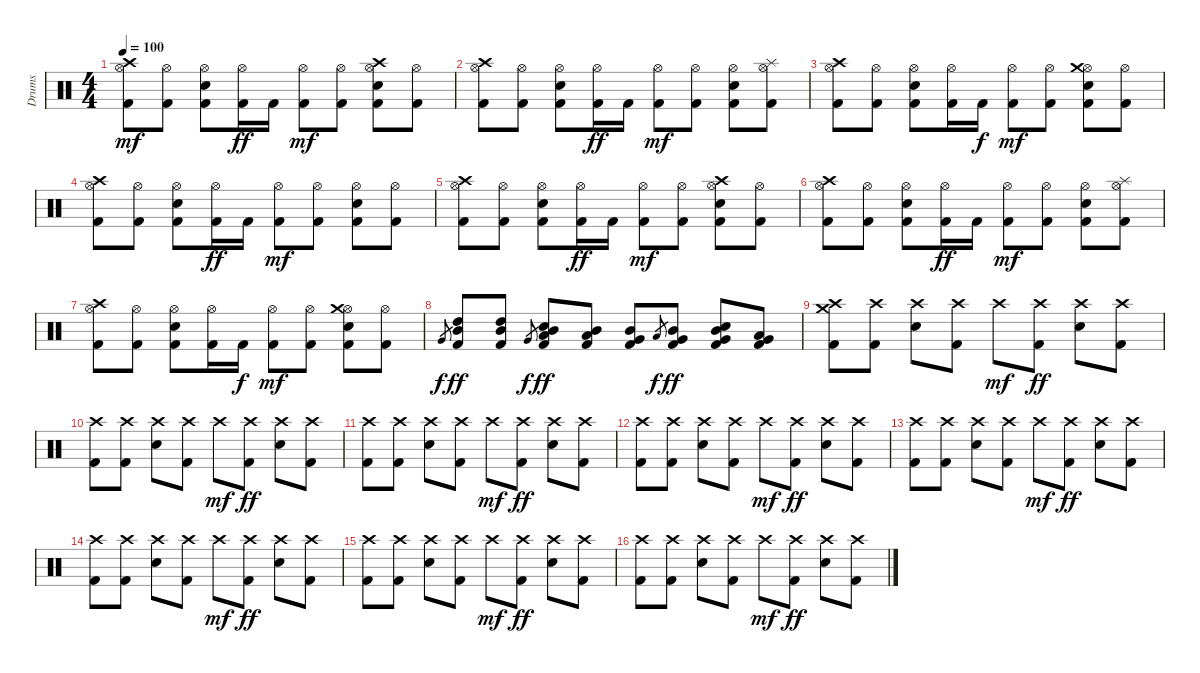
\track ("Drums" "Drums") {instrument percussion}
\staff {score}
\articulation defaults
\ts (4 4)
\tempo 100
\clef neutral
\ks c
("Hi-Hat (open)" "Crash high (hit)" "Kick (hit) 2").8{dy mf} ("Hi-Hat (open)" "Kick (hit) 2").8 ("Hi-Hat (open)" "Electric Snare (hit)" "Kick (hit) 2").8 ("Hi-Hat (open)" "Kick (hit) 2").16{dy ff} "Kick (hit) 2".16 ("Hi-Hat (open)" "Kick (hit) 2").8{dy mf} ("Hi-Hat (open)" "Kick (hit) 2").8 ("Hi-Hat (open)" "Crash high (hit)" "Electric Snare (hit)" "Kick (hit) 2").8 ("Hi-Hat (open)" "Kick (hit) 2").8 |
("Hi-Hat (open)" "Crash high (hit)" "Kick (hit) 2").8 ("Hi-Hat (open)" "Kick (hit) 2").8 ("Hi-Hat (open)" "Electric Snare (hit)" "Kick (hit) 2").8 ("Hi-Hat (open)" "Kick (hit) 2").16{dy ff} "Kick (hit) 2".16 ("Hi-Hat (open)" "Kick (hit) 2").8{dy mf} ("Hi-Hat (open)" "Kick (hit) 2").8 ("Hi-Hat (open)" "Electric Snare (hit)" "Kick (hit) 2").8 ("Hi-Hat (open)" "Splash (hit)" "Kick (hit) 2").8 |
("Hi-Hat (open)" "Crash high (hit)" "Kick (hit) 2").8 ("Hi-Hat (open)" "Kick (hit) 2").8 ("Hi-Hat (open)" "Electric Snare (hit)" "Kick (hit) 2").8 ("Hi-Hat (open)" "Kick (hit) 2").16 "Kick (hit) 2".16{dy f} ("Hi-Hat (open)" "Kick (hit) 2").8{dy mf} ("Hi-Hat (open)" "Kick (hit) 2").8 ("Hi-Hat (open)" "Crash medium (hit)" "Electric Snare (hit)" "Kick (hit) 2").8 ("Hi-Hat (open)" "Kick (hit) 2").8 |
("Hi-Hat (open)" "Crash high (hit)" "Kick (hit) 2").8 ("Hi-Hat (open)" "Kick (hit) 2").8 ("Hi-Hat (open)" "Electric Snare (hit)" "Kick (hit) 2").8 ("Hi-Hat (open)" "Kick (hit) 2").16{dy ff} "Kick (hit) 2".16 ("Hi-Hat (open)" "Kick (hit) 2").8{dy mf} ("Hi-Hat (open)" "Kick (hit) 2").8 ("Hi-Hat (open)" "Electric Snare (hit)" "Kick (hit) 2").8 ("Hi-Hat (open)" "Kick (hit) 2").8 |
("Hi-Hat (open)" "Crash high (hit)" "Kick (hit) 2").8 ("Hi-Hat (open)" "Kick (hit) 2").8 ("Hi-Hat (open)" "Electric Snare (hit)" "Kick (hit) 2").8 ("Hi-Hat (open)" "Kick (hit) 2").16{dy ff} "Kick (hit) 2".16 ("Hi-Hat (open)" "Kick (hit) 2").8{dy mf} ("Hi-Hat (open)" "Kick (hit) 2").8 ("Hi-Hat (open)" "Crash high (hit)" "Electric Snare (hit)" "Kick (hit) 2").8 ("Hi-Hat (open)" "Kick (hit) 2").8 |
("Hi-Hat (open)" "Crash high (hit)" "Kick (hit) 2").8 ("Hi-Hat (open)" "Kick (hit) 2").8 ("Hi-Hat (open)" "Electric Snare (hit)" "Kick (hit) 2").8 ("Hi-Hat (open)" "Kick (hit) 2").16{dy ff} "Kick (hit) 2".16 ("Hi-Hat (open)" "Kick (hit) 2").8{dy mf} ("Hi-Hat (open)" "Kick (hit) 2").8 ("Hi-Hat (open)" "Electric Snare (hit)" "Kick (hit) 2").8 ("Hi-Hat (open)" "Splash (hit)" "Kick (hit) 2").8 |
("Hi-Hat (open)" "Crash high (hit)" "Kick (hit) 2").8 ("Hi-Hat (open)" "Kick (hit) 2").8 ("Hi-Hat (open)" "Electric Snare (hit)" "Kick (hit) 2").8 ("Hi-Hat (open)" "Kick (hit) 2").16 "Kick (hit) 2".16{dy f} ("Hi-Hat (open)" "Kick (hit) 2").8{dy mf} ("Hi-Hat (open)" "Kick (hit) 2").8 ("Hi-Hat (open)" "Crash medium (hit)" "Electric Snare (hit)" "Kick (hit) 2").8 ("Hi-Hat (open)" "Kick (hit) 2").8 |
"Very Low Tom (hit)".8{gr dy f} ("High Tom (hit)" "Mid Tom (hit)" "Kick (hit) 2").8{dy ff} ("High Tom (hit)" "Mid Tom (hit)" "Kick (hit) 2").8 "Very Low Tom (hit)".8{gr dy f} ("Low Tom (hit)" "Mid Tom (hit)" "Electric Snare (hit)" "Kick (hit) 2").8{dy ff} ("Low Tom (hit)" "Mid Tom (hit)" "Kick (hit) 2").8 ("Mid Tom (hit)" "Very Low Tom (hit)" "Kick (hit) 2").8 "Low Tom (hit)".8{gr dy f} ("Very Low Tom (hit)" "Mid Tom (hit)" "Kick (hit) 2").8{dy ff} ("Mid Tom (hit)" "Very Low Tom (hit)" "Electric Snare (hit)" "Kick (hit) 2").8 ("Very Low Tom (hit)" "Low Floor Tom (hit)" "Kick (hit) 2").8 |
("Crash high (hit)" "Crash medium (hit)" "Kick (hit) 2").8 ("Crash high (hit)" "Kick (hit) 2").8 ("Crash high (hit)" "Electric Snare (hit)").8 ("Crash high (hit)" "Kick (hit) 2").8 "Crash high (hit)".8{dy mf} ("Crash high (hit)" "Kick (hit) 2").8{dy ff} ("Crash high (hit)" "Electric Snare (hit)").8 ("Crash high (hit)" "Kick (hit) 2").8 |
("Crash high (hit)" "Kick (hit) 2").8 ("Crash high (hit)" "Kick (hit) 2").8 ("Crash high (hit)" "Electric Snare (hit)").8 ("Crash high (hit)" "Kick (hit) 2").8 "Crash high (hit)".8{dy mf} ("Crash high (hit)" "Kick (hit) 2").8{dy ff} ("Crash high (hit)" "Electric Snare (hit)").8 ("Crash high (hit)" "Kick (hit) 2").8 |
("Crash high (hit)" "Kick (hit) 2").8 ("Crash high (hit)" "Kick (hit) 2").8 ("Crash high (hit)" "Electric Snare (hit)").8 ("Crash high (hit)" "Kick (hit) 2").8 "Crash high (hit)".8{dy mf} ("Crash high (hit)" "Kick (hit) 2").8{dy ff} ("Crash high (hit)" "Electric Snare (hit)").8 ("Crash high (hit)" "Kick (hit) 2").8 |
("Crash high (hit)" "Kick (hit) 2").8 ("Crash high (hit)" "Kick (hit) 2").8 ("Crash high (hit)" "Electric Snare (hit)").8 ("Crash high (hit)" "Kick (hit) 2").8 "Crash high (hit)".8{dy mf} ("Crash high (hit)" "Kick (hit) 2").8{dy ff} ("Crash high (hit)" "Electric Snare (hit)").8 ("Crash high (hit)" "Kick (hit) 2").8 |
("Crash high (hit)" "Kick (hit) 2").8 ("Crash high (hit)" "Kick (hit) 2").8 ("Crash high (hit)" "Electric Snare (hit)").8 ("Crash high (hit)" "Kick (hit) 2").8 "Crash high (hit)".8{dy mf} ("Crash high (hit)" "Kick (hit) 2").8{dy ff} ("Crash high (hit)" "Electric Snare (hit)").8 ("Crash high (hit)" "Kick (hit) 2").8 |
("Crash high (hit)" "Kick (hit) 2").8 ("Crash high (hit)" "Kick (hit) 2").8 ("Crash high (hit)" "Electric Snare (hit)").8 ("Crash high (hit)" "Kick (hit) 2").8 "Crash high (hit)".8{dy mf} ("Crash high (hit)" "Kick (hit) 2").8{dy ff} ("Crash high (hit)" "Electric Snare (hit)").8 ("Crash high (hit)" "Kick (hit) 2").8 |
("Crash high (hit)" "Kick (hit) 2").8 ("Crash high (hit)" "Kick (hit) 2").8 ("Crash high (hit)" "Electric Snare (hit)").8 ("Crash high (hit)" "Kick (hit) 2").8 "Crash high (hit)".8{dy mf} ("Crash high (hit)" "Kick (hit) 2").8{dy ff} ("Crash high (hit)" "Electric Snare (hit)").8 ("Crash high (hit)" "Kick (hit) 2").8 |
("Crash high (hit)" "Kick (hit) 2").8 ("Crash high (hit)" "Kick (hit) 2").8 ("Crash high (hit)" "Electric Snare (hit)").8 ("Crash high (hit)" "Kick (hit) 2").8 "Crash high (hit)".8{dy mf} ("Crash high (hit)" "Kick (hit) 2").8{dy ff} ("Crash high (hit)" "Electric Snare (hit)").8 ("Crash high (hit)" "Kick (hit) 2").8
